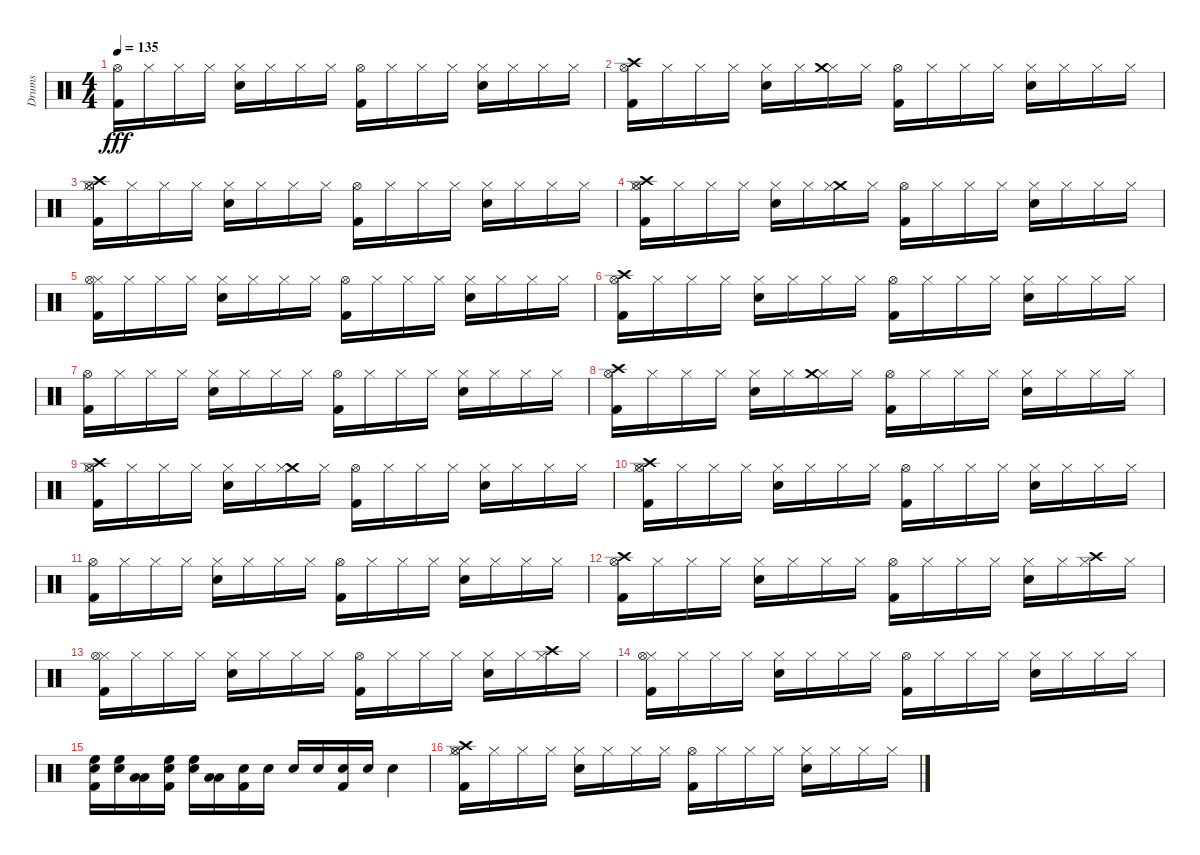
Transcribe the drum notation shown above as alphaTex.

\track ("Drums" "Drums") {instrument percussion}
\staff {score}
\articulation defaults
\ts (4 4)
\tempo 135
\clef neutral
\ks c
("Hi-Hat (open)" "Kick (hit) 2").16{dy fff} "Hi-Hat (closed)".16 "Hi-Hat (closed)".16 "Hi-Hat (closed)".16 ("Snare (hit) 2" "Hi-Hat (closed)").16 "Hi-Hat (closed)".16 "Hi-Hat (closed)".16 "Hi-Hat (closed)".16 ("Kick (hit) 2" "Hi-Hat (open)").16 "Hi-Hat (closed)".16 "Hi-Hat (closed)".16 "Hi-Hat (closed)".16 ("Snare (hit) 2" "Hi-Hat (closed)").16 "Hi-Hat (closed)".16 "Hi-Hat (closed)".16 "Hi-Hat (closed)".16 |
("Crash high (hit)" "Hi-Hat (open)" "Kick (hit) 2").16 "Hi-Hat (closed)".16 "Hi-Hat (closed)".16 "Hi-Hat (closed)".16 ("Snare (hit) 2" "Hi-Hat (closed)").16 "Hi-Hat (closed)".16 ("Hi-Hat (closed)" "Crash medium (hit)").16 "Hi-Hat (closed)".16 ("Kick (hit) 2" "Hi-Hat (open)").16 "Hi-Hat (closed)".16 "Hi-Hat (closed)".16 "Hi-Hat (closed)".16 ("Snare (hit) 2" "Hi-Hat (closed)").16 "Hi-Hat (closed)".16 "Hi-Hat (closed)".16 "Hi-Hat (closed)".16 |
("Hi-Hat (closed)" "Crash high (hit)" "Hi-Hat (open)" "Kick (hit) 2").16 "Hi-Hat (closed)".16 "Hi-Hat (closed)".16 "Hi-Hat (closed)".16 ("Snare (hit) 2" "Hi-Hat (closed)").16 "Hi-Hat (closed)".16 "Hi-Hat (closed)".16 "Hi-Hat (closed)".16 ("Kick (hit) 2" "Hi-Hat (open)").16 "Hi-Hat (closed)".16 "Hi-Hat (closed)".16 "Hi-Hat (closed)".16 ("Snare (hit) 2" "Hi-Hat (closed)").16 "Hi-Hat (closed)".16 "Hi-Hat (closed)".16 "Hi-Hat (closed)".16 |
("Hi-Hat (closed)" "Crash high (hit)" "Hi-Hat (open)" "Kick (hit) 2").16 "Hi-Hat (closed)".16 "Hi-Hat (closed)".16 "Hi-Hat (closed)".16 ("Snare (hit) 2" "Hi-Hat (closed)").16 "Hi-Hat (closed)".16 ("Crash medium (hit)" "Hi-Hat (closed)").16 "Hi-Hat (closed)".16 ("Kick (hit) 2" "Hi-Hat (open)").16 "Hi-Hat (closed)".16 "Hi-Hat (closed)".16 "Hi-Hat (closed)".16 ("Snare (hit) 2" "Hi-Hat (closed)").16 "Hi-Hat (closed)".16 "Hi-Hat (closed)".16 "Hi-Hat (closed)".16 |
("Hi-Hat (closed)" "Hi-Hat (open)" "Kick (hit) 2").16 "Hi-Hat (closed)".16 "Hi-Hat (closed)".16 "Hi-Hat (closed)".16 ("Snare (hit) 2" "Hi-Hat (closed)").16 "Hi-Hat (closed)".16 "Hi-Hat (closed)".16 "Hi-Hat (closed)".16 ("Kick (hit) 2" "Hi-Hat (open)").16 "Hi-Hat (closed)".16 "Hi-Hat (closed)".16 "Hi-Hat (closed)".16 ("Snare (hit) 2" "Hi-Hat (closed)").16 "Hi-Hat (closed)".16 "Hi-Hat (closed)".16 "Hi-Hat (closed)".16 |
("Crash high (hit)" "Hi-Hat (open)" "Kick (hit) 2").16 "Hi-Hat (closed)".16 "Hi-Hat (closed)".16 "Hi-Hat (closed)".16 ("Snare (hit) 2" "Hi-Hat (closed)").16 "Hi-Hat (closed)".16 "Hi-Hat (closed)".16 "Hi-Hat (closed)".16 ("Kick (hit) 2" "Hi-Hat (open)").16 "Hi-Hat (closed)".16 "Hi-Hat (closed)".16 "Hi-Hat (closed)".16 ("Snare (hit) 2" "Hi-Hat (closed)").16 "Hi-Hat (closed)".16 "Hi-Hat (closed)".16 "Hi-Hat (closed)".16 |
("Hi-Hat (open)" "Kick (hit) 2").16 "Hi-Hat (closed)".16 "Hi-Hat (closed)".16 "Hi-Hat (closed)".16 ("Snare (hit) 2" "Hi-Hat (closed)").16 "Hi-Hat (closed)".16 "Hi-Hat (closed)".16 "Hi-Hat (closed)".16 ("Kick (hit) 2" "Hi-Hat (open)").16 "Hi-Hat (closed)".16 "Hi-Hat (closed)".16 "Hi-Hat (closed)".16 ("Snare (hit) 2" "Hi-Hat (closed)").16 "Hi-Hat (closed)".16 "Hi-Hat (closed)".16 "Hi-Hat (closed)".16 |
("Crash high (hit)" "Hi-Hat (open)" "Kick (hit) 2").16 "Hi-Hat (closed)".16 "Hi-Hat (closed)".16 "Hi-Hat (closed)".16 ("Snare (hit) 2" "Hi-Hat (closed)").16 "Hi-Hat (closed)".16 ("Hi-Hat (closed)" "Crash medium (hit)").16 "Hi-Hat (closed)".16 ("Kick (hit) 2" "Hi-Hat (open)").16 "Hi-Hat (closed)".16 "Hi-Hat (closed)".16 "Hi-Hat (closed)".16 ("Snare (hit) 2" "Hi-Hat (closed)").16 "Hi-Hat (closed)".16 "Hi-Hat (closed)".16 "Hi-Hat (closed)".16 |
("Hi-Hat (closed)" "Crash high (hit)" "Hi-Hat (open)" "Kick (hit) 2").16 "Hi-Hat (closed)".16 "Hi-Hat (closed)".16 "Hi-Hat (closed)".16 ("Snare (hit) 2" "Hi-Hat (closed)").16 "Hi-Hat (closed)".16 ("Crash medium (hit)" "Hi-Hat (closed)").16 "Hi-Hat (closed)".16 ("Kick (hit) 2" "Hi-Hat (open)").16 "Hi-Hat (closed)".16 "Hi-Hat (closed)".16 "Hi-Hat (closed)".16 ("Snare (hit) 2" "Hi-Hat (closed)").16 "Hi-Hat (closed)".16 "Hi-Hat (closed)".16 "Hi-Hat (closed)".16 |
("Hi-Hat (closed)" "Crash high (hit)" "Hi-Hat (open)" "Kick (hit) 2").16 "Hi-Hat (closed)".16 "Hi-Hat (closed)".16 "Hi-Hat (closed)".16 ("Snare (hit) 2" "Hi-Hat (closed)").16 "Hi-Hat (closed)".16 "Hi-Hat (closed)".16 "Hi-Hat (closed)".16 ("Kick (hit) 2" "Hi-Hat (open)").16 "Hi-Hat (closed)".16 "Hi-Hat (closed)".16 "Hi-Hat (closed)".16 ("Snare (hit) 2" "Hi-Hat (closed)").16 "Hi-Hat (closed)".16 "Hi-Hat (closed)".16 "Hi-Hat (closed)".16 |
("Hi-Hat (open)" "Kick (hit) 2").16 "Hi-Hat (closed)".16 "Hi-Hat (closed)".16 "Hi-Hat (closed)".16 ("Snare (hit) 2" "Hi-Hat (closed)").16 "Hi-Hat (closed)".16 "Hi-Hat (closed)".16 "Hi-Hat (closed)".16 ("Kick (hit) 2" "Hi-Hat (open)").16 "Hi-Hat (closed)".16 "Hi-Hat (closed)".16 "Hi-Hat (closed)".16 ("Snare (hit) 2" "Hi-Hat (closed)").16 "Hi-Hat (closed)".16 "Hi-Hat (closed)".16 "Hi-Hat (closed)".16 |
("Crash high (hit)" "Hi-Hat (open)" "Kick (hit) 2").16 "Hi-Hat (closed)".16 "Hi-Hat (closed)".16 "Hi-Hat (closed)".16 ("Snare (hit) 2" "Hi-Hat (closed)").16 "Hi-Hat (closed)".16 "Hi-Hat (closed)".16 "Hi-Hat (closed)".16 ("Kick (hit) 2" "Hi-Hat (open)").16 "Hi-Hat (closed)".16 "Hi-Hat (closed)".16 "Hi-Hat (closed)".16 ("Snare (hit) 2" "Hi-Hat (closed)").16 "Hi-Hat (closed)".16 ("Crash high (hit)" "Hi-Hat (closed)").16 "Hi-Hat (closed)".16 |
("Hi-Hat (closed)" "Hi-Hat (open)" "Kick (hit) 2").16 "Hi-Hat (closed)".16 "Hi-Hat (closed)".16 "Hi-Hat (closed)".16 ("Snare (hit) 2" "Hi-Hat (closed)").16 "Hi-Hat (closed)".16 "Hi-Hat (closed)".16 "Hi-Hat (closed)".16 ("Kick (hit) 2" "Hi-Hat (open)").16 "Hi-Hat (closed)".16 "Hi-Hat (closed)".16 "Hi-Hat (closed)".16 ("Snare (hit) 2" "Hi-Hat (closed)").16 "Hi-Hat (closed)".16 ("Crash high (hit)" "Hi-Hat (closed)").16 "Hi-Hat (closed)".16 |
("Hi-Hat (closed)" "Hi-Hat (open)" "Kick (hit) 2").16 "Hi-Hat (closed)".16 "Hi-Hat (closed)".16 "Hi-Hat (closed)".16 ("Snare (hit) 2" "Hi-Hat (closed)").16 "Hi-Hat (closed)".16 "Hi-Hat (closed)".16 "Hi-Hat (closed)".16 ("Kick (hit) 2" "Hi-Hat (open)").16 "Hi-Hat (closed)".16 "Hi-Hat (closed)".16 "Hi-Hat (closed)".16 ("Snare (hit) 2" "Hi-Hat (closed)").16 "Hi-Hat (closed)".16 "Hi-Hat (closed)".16 "Hi-Hat (closed)".16 |
("Snare (hit) 2" "High Floor Tom (hit)" "Kick (hit) 2").16 ("Snare (hit) 2" "High Floor Tom (hit)").16 ("Low Floor Tom (hit)" "Low Tom (hit)").16 ("Kick (hit) 2" "Snare (hit) 2" "High Floor Tom (hit)").16 ("Snare (hit) 2" "High Floor Tom (hit)").16 ("Low Floor Tom (hit)" "Low Tom (hit)").16 ("Snare (hit) 2" "Kick (hit) 2").16 "Snare (hit) 2".16 "Snare (hit) 2".16 "Snare (hit) 2".16 ("Kick (hit) 2" "Snare (hit) 2").16 "Snare (hit) 2".16 "Snare (hit) 2".4 |
("Hi-Hat (closed)" "Crash high (hit)" "Hi-Hat (open)" "Kick (hit) 2").16 "Hi-Hat (closed)".16 "Hi-Hat (closed)".16 "Hi-Hat (closed)".16 ("Snare (hit) 2" "Hi-Hat (closed)").16 "Hi-Hat (closed)".16 "Hi-Hat (closed)".16 "Hi-Hat (closed)".16 ("Kick (hit) 2" "Hi-Hat (open)").16 "Hi-Hat (closed)".16 "Hi-Hat (closed)".16 "Hi-Hat (closed)".16 ("Snare (hit) 2" "Hi-Hat (closed)").16 "Hi-Hat (closed)".16 "Hi-Hat (closed)".16 "Hi-Hat (closed)".16
